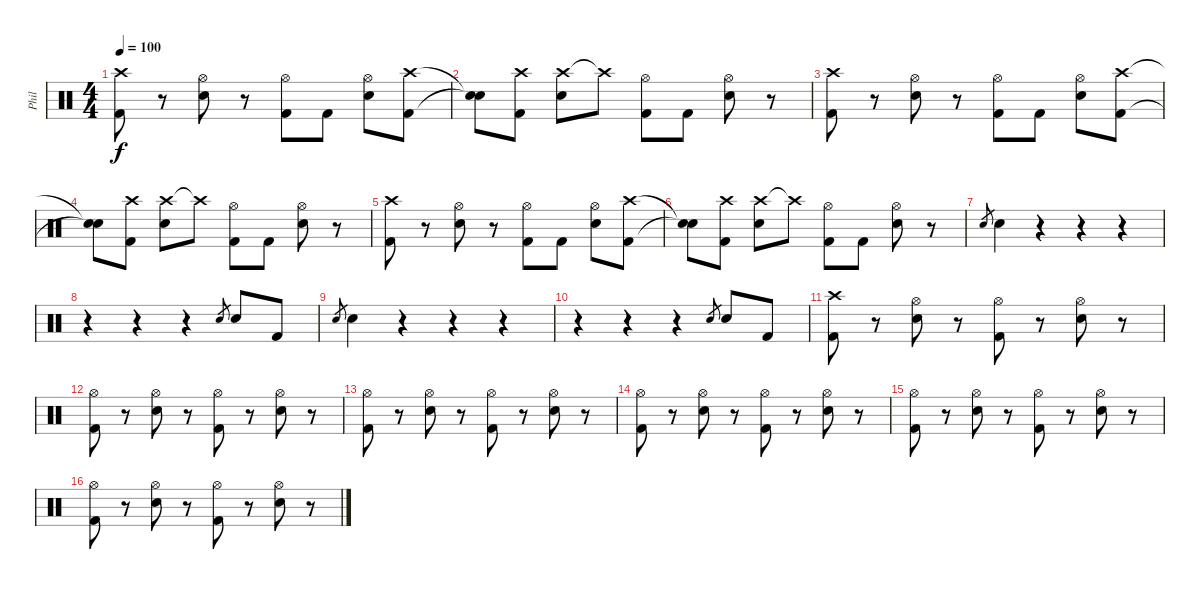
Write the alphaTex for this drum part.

\track ("Phil" "Phil") {instrument percussion}
\staff {score}
\articulation defaults
\ts (4 4)
\tempo 100
\clef neutral
\ks c
("Crash high (hit)" "Kick (hit) 2").8{dy f} r.8 ("Hi-Hat (open)" "Electric Snare (hit)").8 r.8 ("Hi-Hat (open)" "Kick (hit) 2").8 "Kick (hit) 2".8 ("Hi-Hat (open)" "Electric Snare (hit)").8 ("Crash high (hit)" "Kick (hit) 2").8 |
("Snare (hit)"{t} "Snare (hit)"{t}).8 ("Crash high (hit)" "Kick (hit) 2").8 ("Crash high (hit)" "Electric Snare (hit)").8 "Crash high (hit)"{t}.8 ("Hi-Hat (open)" "Kick (hit) 2").8 "Kick (hit) 2".8 ("Hi-Hat (open)" "Electric Snare (hit)").8 r.8 |
("Crash high (hit)" "Kick (hit) 2").8 r.8 ("Hi-Hat (open)" "Electric Snare (hit)").8 r.8 ("Hi-Hat (open)" "Kick (hit) 2").8 "Kick (hit) 2".8 ("Hi-Hat (open)" "Electric Snare (hit)").8 ("Crash high (hit)" "Kick (hit) 2").8 |
("Snare (hit)"{t} "Snare (hit)"{t}).8 ("Crash high (hit)" "Kick (hit) 2").8 ("Crash high (hit)" "Electric Snare (hit)").8 "Crash high (hit)"{t}.8 ("Hi-Hat (open)" "Kick (hit) 2").8 "Kick (hit) 2".8 ("Hi-Hat (open)" "Electric Snare (hit)").8 r.8 |
("Crash high (hit)" "Kick (hit) 2").8 r.8 ("Hi-Hat (open)" "Electric Snare (hit)").8 r.8 ("Hi-Hat (open)" "Kick (hit) 2").8 "Kick (hit) 2".8 ("Hi-Hat (open)" "Electric Snare (hit)").8 ("Crash high (hit)" "Kick (hit) 2").8 |
("Snare (hit)"{t} "Snare (hit)"{t}).8 ("Crash high (hit)" "Kick (hit) 2").8 ("Crash high (hit)" "Electric Snare (hit)").8 "Crash high (hit)"{t}.8 ("Hi-Hat (open)" "Kick (hit) 2").8 "Kick (hit) 2".8 ("Hi-Hat (open)" "Electric Snare (hit)").8 r.8 |
"Electric Snare (hit)".8{gr} "Electric Snare (hit)".4 r.4 r.4 r.4 |
r.4 r.4 r.4 "Electric Snare (hit)".8{gr} "Electric Snare (hit)".8 "Kick (hit) 2".8 |
"Electric Snare (hit)".8{gr} "Electric Snare (hit)".4 r.4 r.4 r.4 |
r.4 r.4 r.4 "Electric Snare (hit)".8{gr} "Electric Snare (hit)".8 "Kick (hit) 2".8 |
("Crash high (hit)" "Kick (hit) 2").8 r.8 ("Hi-Hat (open)" "Electric Snare (hit)").8 r.8 ("Hi-Hat (open)" "Kick (hit) 2").8 r.8 ("Hi-Hat (open)" "Electric Snare (hit)").8 r.8 |
("Hi-Hat (open)" "Kick (hit) 2").8 r.8 ("Hi-Hat (open)" "Electric Snare (hit)").8 r.8 ("Hi-Hat (open)" "Kick (hit) 2").8 r.8 ("Hi-Hat (open)" "Electric Snare (hit)").8 r.8 |
("Hi-Hat (open)" "Kick (hit) 2").8 r.8 ("Hi-Hat (open)" "Electric Snare (hit)").8 r.8 ("Hi-Hat (open)" "Kick (hit) 2").8 r.8 ("Hi-Hat (open)" "Electric Snare (hit)").8 r.8 |
("Hi-Hat (open)" "Kick (hit) 2").8 r.8 ("Hi-Hat (open)" "Electric Snare (hit)").8 r.8 ("Hi-Hat (open)" "Kick (hit) 2").8 r.8 ("Hi-Hat (open)" "Electric Snare (hit)").8 r.8 |
("Hi-Hat (open)" "Kick (hit) 2").8 r.8 ("Hi-Hat (open)" "Electric Snare (hit)").8 r.8 ("Hi-Hat (open)" "Kick (hit) 2").8 r.8 ("Hi-Hat (open)" "Electric Snare (hit)").8 r.8 |
("Hi-Hat (open)" "Kick (hit) 2").8 r.8 ("Hi-Hat (open)" "Electric Snare (hit)").8 r.8 ("Hi-Hat (open)" "Kick (hit) 2").8 r.8 ("Hi-Hat (open)" "Electric Snare (hit)").8 r.8
